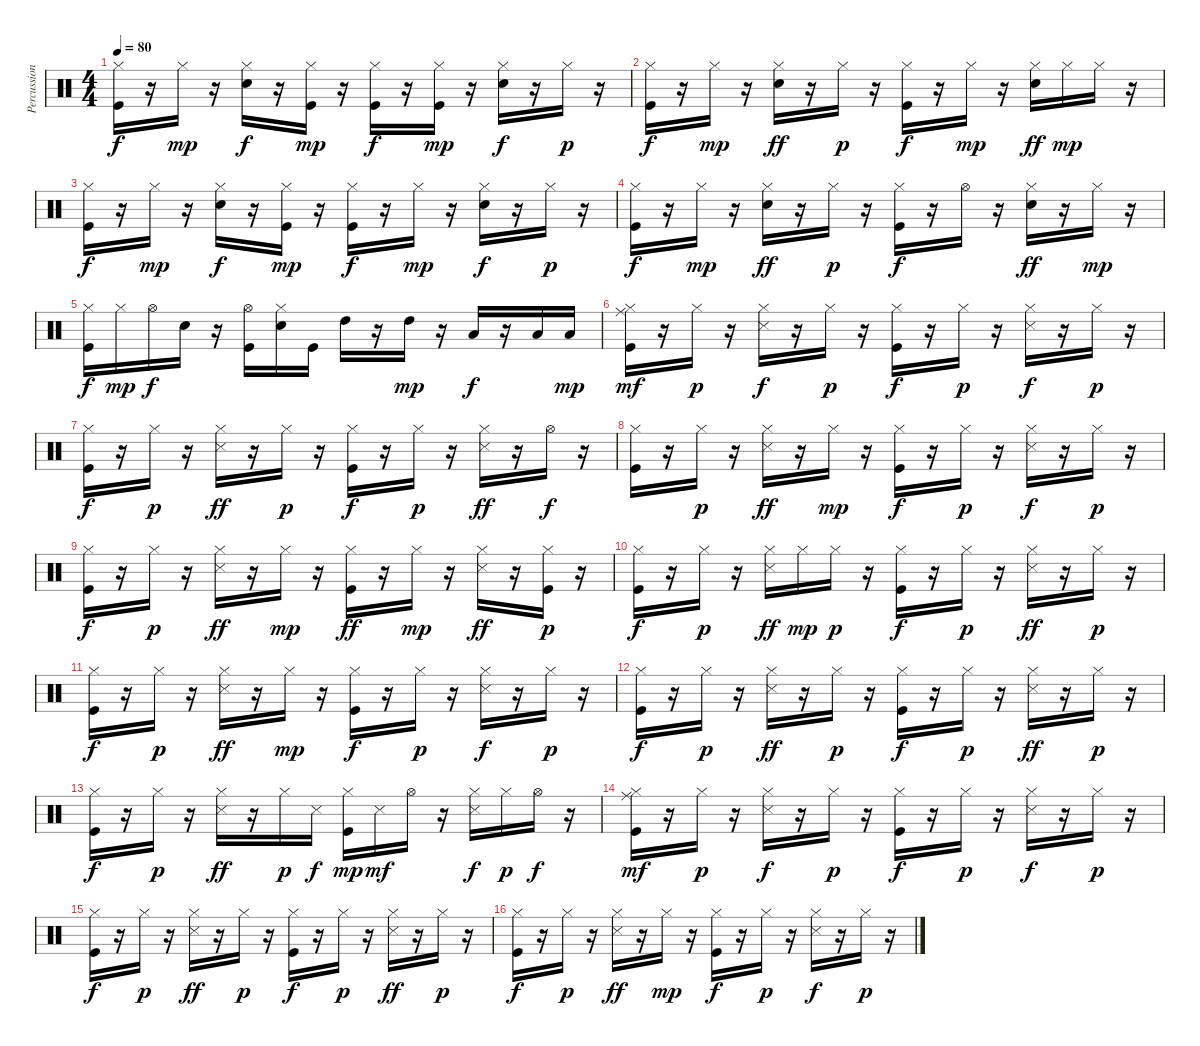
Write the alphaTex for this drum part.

\track ("Percussion" "Percussion") {instrument percussion}
\staff {score}
\articulation defaults
\ts (4 4)
\tempo 80
\clef neutral
\ks c
("Kick (hit)" "Hi-Hat (closed)").16{dy f} r.16 "Hi-Hat (closed)".16{dy mp} r.16 ("Snare (hit) 2" "Hi-Hat (closed)").16{dy f} r.16 ("Kick (hit)" "Hi-Hat (closed)").16{dy mp} r.16 ("Kick (hit)" "Hi-Hat (closed)").16{dy f} r.16 ("Kick (hit)" "Hi-Hat (closed)").16{dy mp} r.16 ("Snare (hit) 2" "Hi-Hat (closed)").16{dy f} r.16 "Hi-Hat (closed)".16{dy p} r.16 |
("Kick (hit)" "Hi-Hat (closed)").16{dy f} r.16 "Hi-Hat (closed)".16{dy mp} r.16 ("Snare (hit) 2" "Hi-Hat (closed)").16{dy ff} r.16 "Hi-Hat (closed)".16{dy p} r.16 ("Kick (hit)" "Hi-Hat (closed)").16{dy f} r.16 "Hi-Hat (closed)".16{dy mp} r.16 ("Snare (hit) 2" "Hi-Hat (closed)").16{dy ff} "Hi-Hat (closed)".16{dy mp} "Hi-Hat (closed)".16 r.16 |
("Kick (hit)" "Hi-Hat (closed)").16{dy f} r.16 "Hi-Hat (closed)".16{dy mp} r.16 ("Snare (hit) 2" "Hi-Hat (closed)").16{dy f} r.16 ("Kick (hit)" "Hi-Hat (closed)").16{dy mp} r.16 ("Kick (hit)" "Hi-Hat (closed)").16{dy f} r.16 "Hi-Hat (closed)".16{dy mp} r.16 ("Snare (hit) 2" "Hi-Hat (closed)").16{dy f} r.16 "Hi-Hat (closed)".16{dy p} r.16 |
("Kick (hit)" "Hi-Hat (closed)").16{dy f} r.16 "Hi-Hat (closed)".16{dy mp} r.16 ("Snare (hit) 2" "Hi-Hat (closed)").16{dy ff} r.16 "Hi-Hat (closed)".16{dy p} r.16 ("Kick (hit)" "Hi-Hat (closed)").16{dy f} r.16 "Hi-Hat (open)".16 r.16 ("Snare (hit) 2" "Hi-Hat (closed)").16{dy ff} r.16 "Hi-Hat (closed)".16{dy mp} r.16 |
("Kick (hit)" "Hi-Hat (closed)").16{dy f} "Hi-Hat (closed)".16{dy mp} "Hi-Hat (open)".16{dy f} "Snare (hit) 2".16 r.16 ("Kick (hit)" "Hi-Hat (open)").16 ("Snare (hit) 2" "Hi-Hat (closed)").16 "Kick (hit)".16 "High Tom (hit)".16 r.16 "High Tom (hit)".16{dy mp} r.16 "Low Tom (hit)".16{dy f} r.16 "Low Floor Tom (hit)".16 "Low Floor Tom (hit)".16{dy mp} |
("Kick (hit)" "Hi-Hat (closed)" "Ride (middle)").16{dy mf} r.16 "Hi-Hat (closed)".16{dy p} r.16 ("Hi-Hat (closed)" "Snare (side stick) 3").16{dy f} r.16 "Hi-Hat (closed)".16{dy p} r.16 ("Kick (hit)" "Hi-Hat (closed)").16{dy f} r.16 "Hi-Hat (closed)".16{dy p} r.16 ("Hi-Hat (closed)" "Snare (side stick) 3").16{dy f} r.16 "Hi-Hat (closed)".16{dy p} r.16 |
("Kick (hit)" "Hi-Hat (closed)").16{dy f} r.16 "Hi-Hat (closed)".16{dy p} r.16 ("Hi-Hat (closed)" "Snare (side stick) 3").16{dy ff} r.16 "Hi-Hat (closed)".16{dy p} r.16 ("Kick (hit)" "Hi-Hat (closed)").16{dy f} r.16 "Hi-Hat (closed)".16{dy p} r.16 ("Hi-Hat (closed)" "Snare (side stick) 3").16{dy ff} r.16 "Hi-Hat (open)".16{dy f} r.16 |
("Kick (hit)" "Hi-Hat (closed)").16 r.16 "Hi-Hat (closed)".16{dy p} r.16 ("Hi-Hat (closed)" "Snare (side stick) 3").16{dy ff} r.16 "Hi-Hat (closed)".16{dy mp} r.16 ("Kick (hit)" "Hi-Hat (closed)").16{dy f} r.16 "Hi-Hat (closed)".16{dy p} r.16 ("Hi-Hat (closed)" "Snare (side stick) 3").16{dy f} r.16 "Hi-Hat (closed)".16{dy p} r.16 |
("Kick (hit)" "Hi-Hat (closed)").16{dy f} r.16 "Hi-Hat (closed)".16{dy p} r.16 ("Hi-Hat (closed)" "Snare (side stick) 3").16{dy ff} r.16 "Hi-Hat (closed)".16{dy mp} r.16 ("Kick (hit)" "Hi-Hat (closed)").16{dy ff} r.16 "Hi-Hat (closed)".16{dy mp} r.16 ("Hi-Hat (closed)" "Snare (side stick) 3").16{dy ff} r.16 ("Kick (hit)" "Hi-Hat (closed)").16{dy p} r.16 |
("Kick (hit)" "Hi-Hat (closed)").16{dy f} r.16 "Hi-Hat (closed)".16{dy p} r.16 ("Hi-Hat (closed)" "Snare (side stick) 3").16{dy ff} "Hi-Hat (closed)".16{dy mp} "Hi-Hat (closed)".16{dy p} r.16 ("Kick (hit)" "Hi-Hat (closed)").16{dy f} r.16 "Hi-Hat (closed)".16{dy p} r.16 ("Hi-Hat (closed)" "Snare (side stick) 3").16{dy ff} r.16 "Hi-Hat (closed)".16{dy p} r.16 |
("Kick (hit)" "Hi-Hat (closed)").16{dy f} r.16 "Hi-Hat (closed)".16{dy p} r.16 ("Hi-Hat (closed)" "Snare (side stick) 3").16{dy ff} r.16 "Hi-Hat (closed)".16{dy mp} r.16 ("Kick (hit)" "Hi-Hat (closed)").16{dy f} r.16 "Hi-Hat (closed)".16{dy p} r.16 ("Hi-Hat (closed)" "Snare (side stick) 3").16{dy f} r.16 "Hi-Hat (closed)".16{dy p} r.16 |
("Kick (hit)" "Hi-Hat (closed)").16{dy f} r.16 "Hi-Hat (closed)".16{dy p} r.16 ("Hi-Hat (closed)" "Snare (side stick) 3").16{dy ff} r.16 "Hi-Hat (closed)".16{dy p} r.16 ("Kick (hit)" "Hi-Hat (closed)").16{dy f} r.16 "Hi-Hat (closed)".16{dy p} r.16 ("Hi-Hat (closed)" "Snare (side stick) 3").16{dy ff} r.16 "Hi-Hat (closed)".16{dy p} r.16 |
("Kick (hit)" "Hi-Hat (closed)").16{dy f} r.16 "Hi-Hat (closed)".16{dy p} r.16 ("Hi-Hat (closed)" "Snare (side stick) 3").16{dy ff} r.16 "Hi-Hat (closed)".16{dy p} "Snare (side stick) 3".16{dy f} ("Kick (hit)" "Hi-Hat (closed)").16{dy mp} "Snare (side stick) 3".16{dy mf} "Hi-Hat (open)".16 r.16 ("Hi-Hat (closed)" "Snare (side stick) 3").16{dy f} "Hi-Hat (closed)".16{dy p} "Hi-Hat (open)".16{dy f} r.16 |
("Kick (hit)" "Hi-Hat (closed)" "Ride (middle)").16{dy mf} r.16 "Hi-Hat (closed)".16{dy p} r.16 ("Hi-Hat (closed)" "Snare (side stick) 3").16{dy f} r.16 "Hi-Hat (closed)".16{dy p} r.16 ("Kick (hit)" "Hi-Hat (closed)").16{dy f} r.16 "Hi-Hat (closed)".16{dy p} r.16 ("Hi-Hat (closed)" "Snare (side stick) 3").16{dy f} r.16 "Hi-Hat (closed)".16{dy p} r.16 |
("Kick (hit)" "Hi-Hat (closed)").16{dy f} r.16 "Hi-Hat (closed)".16{dy p} r.16 ("Hi-Hat (closed)" "Snare (side stick) 3").16{dy ff} r.16 "Hi-Hat (closed)".16{dy p} r.16 ("Kick (hit)" "Hi-Hat (closed)").16{dy f} r.16 "Hi-Hat (closed)".16{dy p} r.16 ("Hi-Hat (closed)" "Snare (side stick) 3").16{dy ff} r.16 "Hi-Hat (closed)".16{dy p} r.16 |
("Kick (hit)" "Hi-Hat (closed)").16{dy f} r.16 "Hi-Hat (closed)".16{dy p} r.16 ("Hi-Hat (closed)" "Snare (side stick) 3").16{dy ff} r.16 "Hi-Hat (closed)".16{dy mp} r.16 ("Kick (hit)" "Hi-Hat (closed)").16{dy f} r.16 "Hi-Hat (closed)".16{dy p} r.16 ("Hi-Hat (closed)" "Snare (side stick) 3").16{dy f} r.16 "Hi-Hat (closed)".16{dy p} r.16
